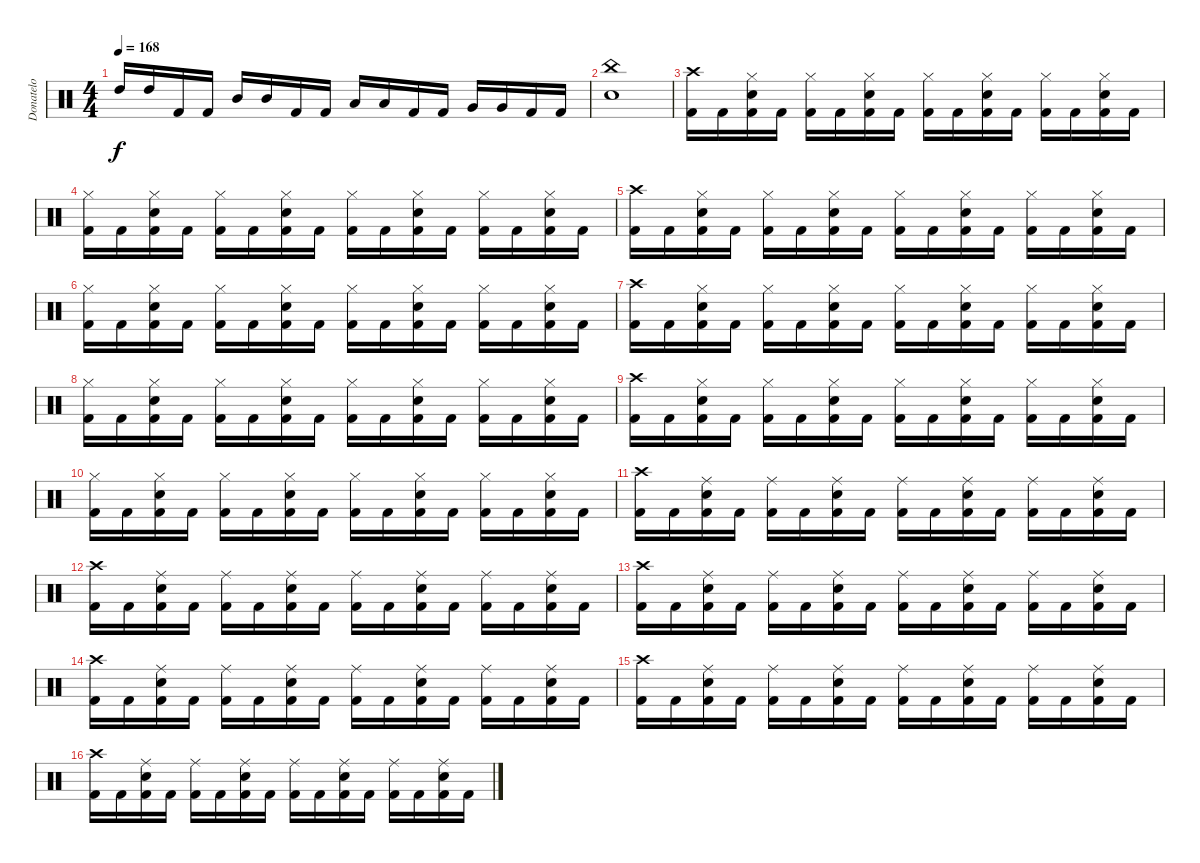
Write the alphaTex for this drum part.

\track ("Donatelo" "Donatelo") {instrument percussion}
\staff {score}
\articulation defaults
\ts (4 4)
\tempo 168
\clef neutral
\ks c "High Tom (hit)".16{dy f} "High Tom (hit)".16 "Kick (hit) 2".16 "Kick (hit) 2".16 "Mid Tom (hit)".16 "Mid Tom (hit)".16 "Kick (hit) 2".16 "Kick (hit) 2".16 "Low Tom (hit)".16 "Low Tom (hit)".16 "Kick (hit) 2".16 "Kick (hit) 2".16 "Very Low Tom (hit)".16 "Very Low Tom (hit)".16 "Kick (hit) 2".16 "Kick (hit) 2".16
|
("China (hit)" "Electric Snare (hit)").1 |
("Kick (hit) 2" "Crash high (hit)").16 "Kick (hit) 2".16 ("Kick (hit) 2" "Electric Snare (hit)" "Hi-Hat (closed)").16 "Kick (hit) 2".16 ("Kick (hit) 2" "Hi-Hat (closed)").16 "Kick (hit) 2".16 ("Kick (hit) 2" "Electric Snare (hit)" "Hi-Hat (closed)").16 "Kick (hit) 2".16 ("Kick (hit) 2" "Hi-Hat (closed)").16 "Kick (hit) 2".16 ("Kick (hit) 2" "Electric Snare (hit)" "Hi-Hat (closed)").16 "Kick (hit) 2".16 ("Kick (hit) 2" "Hi-Hat (closed)").16 "Kick (hit) 2".16 ("Kick (hit) 2" "Electric Snare (hit)" "Hi-Hat (closed)").16 "Kick (hit) 2".16 |
("Kick (hit) 2" "Hi-Hat (closed)").16 "Kick (hit) 2".16 ("Kick (hit) 2" "Electric Snare (hit)" "Hi-Hat (closed)").16 "Kick (hit) 2".16 ("Kick (hit) 2" "Hi-Hat (closed)").16 "Kick (hit) 2".16 ("Kick (hit) 2" "Electric Snare (hit)" "Hi-Hat (closed)").16 "Kick (hit) 2".16 ("Kick (hit) 2" "Hi-Hat (closed)").16 "Kick (hit) 2".16 ("Kick (hit) 2" "Electric Snare (hit)" "Hi-Hat (closed)").16 "Kick (hit) 2".16 ("Kick (hit) 2" "Hi-Hat (closed)").16 "Kick (hit) 2".16 ("Kick (hit) 2" "Electric Snare (hit)" "Hi-Hat (closed)").16 "Kick (hit) 2".16 |
("Kick (hit) 2" "Crash high (hit)").16 "Kick (hit) 2".16 ("Kick (hit) 2" "Electric Snare (hit)" "Hi-Hat (closed)").16 "Kick (hit) 2".16 ("Kick (hit) 2" "Hi-Hat (closed)").16 "Kick (hit) 2".16 ("Kick (hit) 2" "Electric Snare (hit)" "Hi-Hat (closed)").16 "Kick (hit) 2".16 ("Kick (hit) 2" "Hi-Hat (closed)").16 "Kick (hit) 2".16 ("Kick (hit) 2" "Electric Snare (hit)" "Hi-Hat (closed)").16 "Kick (hit) 2".16 ("Kick (hit) 2" "Hi-Hat (closed)").16 "Kick (hit) 2".16 ("Kick (hit) 2" "Electric Snare (hit)" "Hi-Hat (closed)").16 "Kick (hit) 2".16 |
("Kick (hit) 2" "Hi-Hat (closed)").16 "Kick (hit) 2".16 ("Kick (hit) 2" "Electric Snare (hit)" "Hi-Hat (closed)").16 "Kick (hit) 2".16 ("Kick (hit) 2" "Hi-Hat (closed)").16 "Kick (hit) 2".16 ("Kick (hit) 2" "Electric Snare (hit)" "Hi-Hat (closed)").16 "Kick (hit) 2".16 ("Kick (hit) 2" "Hi-Hat (closed)").16 "Kick (hit) 2".16 ("Kick (hit) 2" "Electric Snare (hit)" "Hi-Hat (closed)").16 "Kick (hit) 2".16 ("Kick (hit) 2" "Hi-Hat (closed)").16 "Kick (hit) 2".16 ("Kick (hit) 2" "Electric Snare (hit)" "Hi-Hat (closed)").16 "Kick (hit) 2".16 |
("Kick (hit) 2" "Crash high (hit)").16 "Kick (hit) 2".16 ("Kick (hit) 2" "Electric Snare (hit)" "Hi-Hat (closed)").16 "Kick (hit) 2".16 ("Kick (hit) 2" "Hi-Hat (closed)").16 "Kick (hit) 2".16 ("Kick (hit) 2" "Electric Snare (hit)" "Hi-Hat (closed)").16 "Kick (hit) 2".16 ("Kick (hit) 2" "Hi-Hat (closed)").16 "Kick (hit) 2".16 ("Kick (hit) 2" "Electric Snare (hit)" "Hi-Hat (closed)").16 "Kick (hit) 2".16 ("Kick (hit) 2" "Hi-Hat (closed)").16 "Kick (hit) 2".16 ("Kick (hit) 2" "Electric Snare (hit)" "Hi-Hat (closed)").16 "Kick (hit) 2".16 |
("Kick (hit) 2" "Hi-Hat (closed)").16 "Kick (hit) 2".16 ("Kick (hit) 2" "Electric Snare (hit)" "Hi-Hat (closed)").16 "Kick (hit) 2".16 ("Kick (hit) 2" "Hi-Hat (closed)").16 "Kick (hit) 2".16 ("Kick (hit) 2" "Electric Snare (hit)" "Hi-Hat (closed)").16 "Kick (hit) 2".16 ("Kick (hit) 2" "Hi-Hat (closed)").16 "Kick (hit) 2".16 ("Kick (hit) 2" "Electric Snare (hit)" "Hi-Hat (closed)").16 "Kick (hit) 2".16 ("Kick (hit) 2" "Hi-Hat (closed)").16 "Kick (hit) 2".16 ("Kick (hit) 2" "Electric Snare (hit)" "Hi-Hat (closed)").16 "Kick (hit) 2".16 |
("Kick (hit) 2" "Crash high (hit)").16 "Kick (hit) 2".16 ("Kick (hit) 2" "Electric Snare (hit)" "Hi-Hat (closed)").16 "Kick (hit) 2".16 ("Kick (hit) 2" "Hi-Hat (closed)").16 "Kick (hit) 2".16 ("Kick (hit) 2" "Electric Snare (hit)" "Hi-Hat (closed)").16 "Kick (hit) 2".16 ("Kick (hit) 2" "Hi-Hat (closed)").16 "Kick (hit) 2".16 ("Kick (hit) 2" "Electric Snare (hit)" "Hi-Hat (closed)").16 "Kick (hit) 2".16 ("Kick (hit) 2" "Hi-Hat (closed)").16 "Kick (hit) 2".16 ("Kick (hit) 2" "Electric Snare (hit)" "Hi-Hat (closed)").16 "Kick (hit) 2".16 |
("Kick (hit) 2" "Hi-Hat (closed)").16 "Kick (hit) 2".16 ("Kick (hit) 2" "Electric Snare (hit)" "Hi-Hat (closed)").16 "Kick (hit) 2".16 ("Kick (hit) 2" "Hi-Hat (closed)").16 "Kick (hit) 2".16 ("Kick (hit) 2" "Electric Snare (hit)" "Hi-Hat (closed)").16 "Kick (hit) 2".16 ("Kick (hit) 2" "Hi-Hat (closed)").16 "Kick (hit) 2".16 ("Kick (hit) 2" "Electric Snare (hit)" "Hi-Hat (closed)").16 "Kick (hit) 2".16 ("Kick (hit) 2" "Hi-Hat (closed)").16 "Kick (hit) 2".16 ("Kick (hit) 2" "Electric Snare (hit)" "Hi-Hat (closed)").16 "Kick (hit) 2".16 |
("Kick (hit) 2" "Crash high (hit)").16 "Kick (hit) 2".16 ("Kick (hit) 2" "Electric Snare (hit)" "Ride (middle)").16 "Kick (hit) 2".16 ("Kick (hit) 2" "Ride (middle)").16 "Kick (hit) 2".16 ("Kick (hit) 2" "Electric Snare (hit)" "Ride (middle)").16 "Kick (hit) 2".16 ("Kick (hit) 2" "Ride (middle)").16 "Kick (hit) 2".16 ("Kick (hit) 2" "Electric Snare (hit)" "Ride (middle)").16 "Kick (hit) 2".16 ("Kick (hit) 2" "Ride (middle)").16 "Kick (hit) 2".16 ("Kick (hit) 2" "Electric Snare (hit)" "Ride (middle)").16 "Kick (hit) 2".16 |
("Kick (hit) 2" "Crash high (hit)").16 "Kick (hit) 2".16 ("Kick (hit) 2" "Electric Snare (hit)" "Ride (middle)").16 "Kick (hit) 2".16 ("Kick (hit) 2" "Ride (middle)").16 "Kick (hit) 2".16 ("Kick (hit) 2" "Electric Snare (hit)" "Ride (middle)").16 "Kick (hit) 2".16 ("Kick (hit) 2" "Ride (middle)").16 "Kick (hit) 2".16 ("Kick (hit) 2" "Electric Snare (hit)" "Ride (middle)").16 "Kick (hit) 2".16 ("Kick (hit) 2" "Ride (middle)").16 "Kick (hit) 2".16 ("Kick (hit) 2" "Electric Snare (hit)" "Ride (middle)").16 "Kick (hit) 2".16 |
("Kick (hit) 2" "Crash high (hit)").16 "Kick (hit) 2".16 ("Kick (hit) 2" "Electric Snare (hit)" "Ride (middle)").16 "Kick (hit) 2".16 ("Kick (hit) 2" "Ride (middle)").16 "Kick (hit) 2".16 ("Kick (hit) 2" "Electric Snare (hit)" "Ride (middle)").16 "Kick (hit) 2".16 ("Kick (hit) 2" "Ride (middle)").16 "Kick (hit) 2".16 ("Kick (hit) 2" "Electric Snare (hit)" "Ride (middle)").16 "Kick (hit) 2".16 ("Kick (hit) 2" "Ride (middle)").16 "Kick (hit) 2".16 ("Kick (hit) 2" "Electric Snare (hit)" "Ride (middle)").16 "Kick (hit) 2".16 |
("Kick (hit) 2" "Crash high (hit)").16 "Kick (hit) 2".16 ("Kick (hit) 2" "Electric Snare (hit)" "Ride (middle)").16 "Kick (hit) 2".16 ("Kick (hit) 2" "Ride (middle)").16 "Kick (hit) 2".16 ("Kick (hit) 2" "Electric Snare (hit)" "Ride (middle)").16 "Kick (hit) 2".16 ("Kick (hit) 2" "Ride (middle)").16 "Kick (hit) 2".16 ("Kick (hit) 2" "Electric Snare (hit)" "Ride (middle)").16 "Kick (hit) 2".16 ("Kick (hit) 2" "Ride (middle)").16 "Kick (hit) 2".16 ("Kick (hit) 2" "Electric Snare (hit)" "Ride (middle)").16 "Kick (hit) 2".16 |
("Kick (hit) 2" "Crash high (hit)").16 "Kick (hit) 2".16 ("Kick (hit) 2" "Electric Snare (hit)" "Ride (middle)").16 "Kick (hit) 2".16 ("Kick (hit) 2" "Ride (middle)").16 "Kick (hit) 2".16 ("Kick (hit) 2" "Electric Snare (hit)" "Ride (middle)").16 "Kick (hit) 2".16 ("Kick (hit) 2" "Ride (middle)").16 "Kick (hit) 2".16 ("Kick (hit) 2" "Electric Snare (hit)" "Ride (middle)").16 "Kick (hit) 2".16 ("Kick (hit) 2" "Ride (middle)").16 "Kick (hit) 2".16 ("Kick (hit) 2" "Electric Snare (hit)" "Ride (middle)").16 "Kick (hit) 2".16 |
("Kick (hit) 2" "Crash high (hit)").16 "Kick (hit) 2".16 ("Kick (hit) 2" "Electric Snare (hit)" "Ride (middle)").16 "Kick (hit) 2".16 ("Kick (hit) 2" "Ride (middle)").16 "Kick (hit) 2".16 ("Kick (hit) 2" "Electric Snare (hit)" "Ride (middle)").16 "Kick (hit) 2".16 ("Kick (hit) 2" "Ride (middle)").16 "Kick (hit) 2".16 ("Kick (hit) 2" "Electric Snare (hit)" "Ride (middle)").16 "Kick (hit) 2".16 ("Kick (hit) 2" "Ride (middle)").16 "Kick (hit) 2".16 ("Kick (hit) 2" "Electric Snare (hit)" "Ride (middle)").16 "Kick (hit) 2".16
